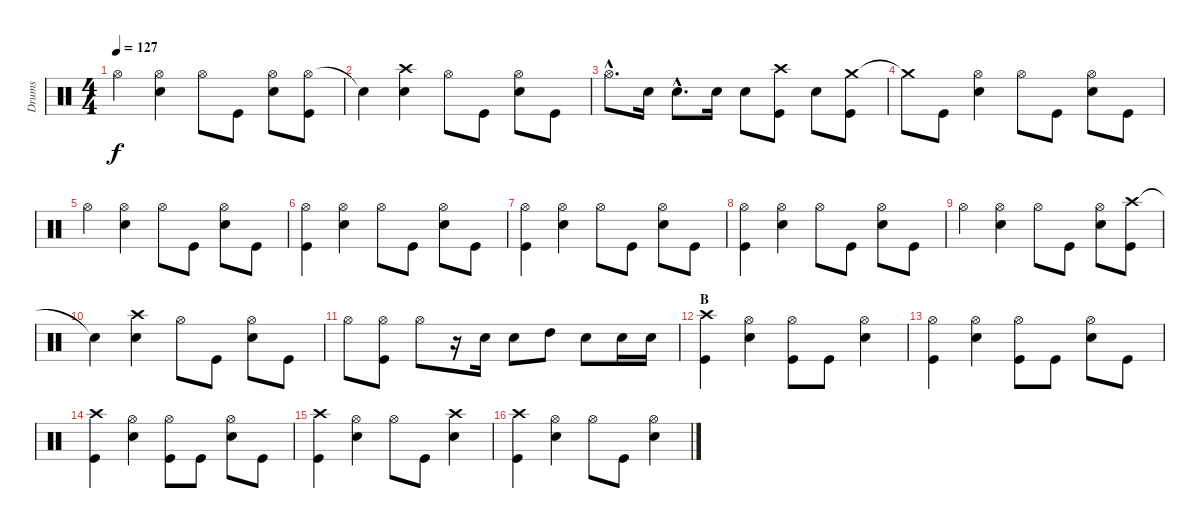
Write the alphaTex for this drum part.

\track ("Drums" "Drums") {instrument percussion}
\staff {score}
\articulation defaults
\ts (4 4)
\tempo 127
\clef neutral
\ks c "Hi-Hat (open)".4{dy f}
("Hi-Hat (open)" "Snare (hit) 2").4 "Hi-Hat (open)".8 "Kick (hit)".8 ("Hi-Hat (open)" "Snare (hit) 2").8 ("Hi-Hat (open)" "Kick (hit)").8 |
"Snare (hit)"{t}.4 ("Crash high (hit)" "Snare (hit) 2").4 "Hi-Hat (open)".8 "Kick (hit)".8 ("Hi-Hat (open)" "Snare (hit) 2").8 "Kick (hit)".8 |
"Hi-Hat (open)"{hac}.8{d} "Snare (hit) 2".16 "Snare (hit) 2"{hac}.8{d} "Snare (hit) 2".16 "Snare (hit) 2".8 ("Crash high (hit)" "Kick (hit)").8 "Snare (hit) 2".8 ("Crash medium (hit)" "Kick (hit)").8 |
"Crash medium (hit)"{t}.8 "Kick (hit)".8 ("Hi-Hat (open)" "Snare (hit) 2").4 "Hi-Hat (open)".8 "Kick (hit)".8 ("Hi-Hat (open)" "Snare (hit) 2").8 "Kick (hit)".8 |
"Hi-Hat (open)".4 ("Hi-Hat (open)" "Snare (hit) 2").4 "Hi-Hat (open)".8 "Kick (hit)".8 ("Hi-Hat (open)" "Snare (hit) 2").8 "Kick (hit)".8 |
("Hi-Hat (open)" "Kick (hit)").4 ("Hi-Hat (open)" "Snare (hit) 2").4 "Hi-Hat (open)".8 "Kick (hit)".8 ("Hi-Hat (open)" "Snare (hit) 2").8 "Kick (hit)".8 |
("Hi-Hat (open)" "Kick (hit)").4 ("Hi-Hat (open)" "Snare (hit) 2").4 "Hi-Hat (open)".8 "Kick (hit)".8 ("Hi-Hat (open)" "Snare (hit) 2").8 "Kick (hit)".8 |
("Hi-Hat (open)" "Kick (hit)").4 ("Hi-Hat (open)" "Snare (hit) 2").4 "Hi-Hat (open)".8 "Kick (hit)".8 ("Hi-Hat (open)" "Snare (hit) 2").8 "Kick (hit)".8 |
"Hi-Hat (open)".4 ("Hi-Hat (open)" "Snare (hit) 2").4 "Hi-Hat (open)".8 "Kick (hit)".8 ("Hi-Hat (open)" "Snare (hit) 2").8 ("Crash high (hit)" "Kick (hit)").8 |
"Snare (hit)"{t}.4 ("Crash high (hit)" "Snare (hit) 2").4 "Hi-Hat (open)".8 "Kick (hit)".8 ("Hi-Hat (open)" "Snare (hit) 2").8 "Kick (hit)".8 |
"Hi-Hat (open)".8 ("Hi-Hat (open)" "Kick (hit)").8 "Hi-Hat (open)".8 r.16 "Snare (hit) 2".16 "Snare (hit) 2".8 "High Tom (hit)".8 "Snare (hit) 2".8 "Snare (hit) 2".16 "Snare (hit) 2".16 |
\section ("" "B")
("Crash high (hit)" "Kick (hit)").4 ("Hi-Hat (open)" "Snare (hit) 2").4 ("Hi-Hat (open)" "Kick (hit)").8 "Kick (hit)".8 ("Hi-Hat (open)" "Snare (hit) 2").4 |
("Hi-Hat (open)" "Kick (hit)").4 ("Hi-Hat (open)" "Snare (hit) 2").4 ("Hi-Hat (open)" "Kick (hit)").8 "Kick (hit)".8 ("Hi-Hat (open)" "Snare (hit) 2").8 "Kick (hit)".8 |
("Crash high (hit)" "Kick (hit)").4 ("Hi-Hat (open)" "Snare (hit) 2").4 ("Hi-Hat (open)" "Kick (hit)").8 "Kick (hit)".8 ("Hi-Hat (open)" "Snare (hit) 2").8 "Kick (hit)".8 |
("Crash high (hit)" "Kick (hit)").4 ("Hi-Hat (open)" "Snare (hit) 2").4 "Hi-Hat (open)".8 "Kick (hit)".8 ("Crash high (hit)" "Snare (hit) 2").4 |
("Crash high (hit)" "Kick (hit)").4 ("Hi-Hat (open)" "Snare (hit) 2").4 "Hi-Hat (open)".8 "Kick (hit)".8 ("Hi-Hat (open)" "Snare (hit) 2").4
